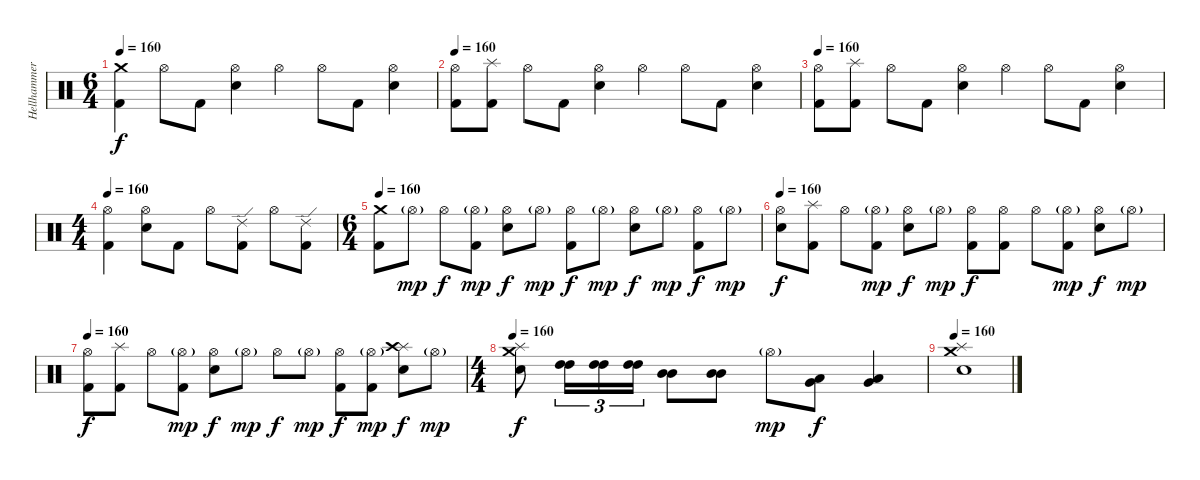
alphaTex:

\track ("Hellhammer" "Hellhammer") {instrument percussion}
\staff {score}
\articulation defaults
\ts (6 4)
\tempo 160
\clef neutral
\ks c
("Kick (hit) 2" "Crash medium (hit)").4{dy f} "Hi-Hat (open)".8 "Kick (hit) 2".8 ("Electric Snare (hit)" "Hi-Hat (open)").4 "Hi-Hat (open)".4 "Hi-Hat (open)".8 "Kick (hit) 2".8 ("Electric Snare (hit)" "Hi-Hat (open)").4 |
\tempo 160
("Kick (hit) 2" "Hi-Hat (open)").8 ("Kick (hit) 2" "Splash (hit)").8 "Hi-Hat (open)".8 "Kick (hit) 2".8 ("Electric Snare (hit)" "Hi-Hat (open)").4 "Hi-Hat (open)".4 "Hi-Hat (open)".8 "Kick (hit) 2".8 ("Electric Snare (hit)" "Hi-Hat (open)").4 |
\tempo 160
("Kick (hit) 2" "Hi-Hat (open)").8 ("Kick (hit) 2" "Splash (hit)").8 "Hi-Hat (open)".8 "Kick (hit) 2".8 ("Electric Snare (hit)" "Hi-Hat (open)").4 "Hi-Hat (open)".4 "Hi-Hat (open)".8 "Kick (hit) 2".8 ("Electric Snare (hit)" "Hi-Hat (open)").4 |
\ts (4 4)
\tempo 160
("Kick (hit) 2" "Hi-Hat (open)").4 ("Electric Snare (hit)" "Hi-Hat (open)").8 "Kick (hit) 2".8 "Hi-Hat (open)".8 ("Kick (hit) 2" "Ride (edge) 2").8 "Hi-Hat (open)".8 ("Kick (hit) 2" "Ride (edge) 2").8 |
\ts (6 4)
\tempo 160
("Kick (hit) 2" "Crash medium (hit)").8 "Hi-Hat (open)"{g}.8{dy mp} "Hi-Hat (open)".8{dy f} ("Kick (hit) 2" "Hi-Hat (open)"{g}).8{dy mp} ("Electric Snare (hit)" "Hi-Hat (open)").8{dy f} "Hi-Hat (open)"{g}.8{dy mp} ("Kick (hit) 2" "Hi-Hat (open)").8{dy f} "Hi-Hat (open)"{g}.8{dy mp} ("Electric Snare (hit)" "Hi-Hat (open)").8{dy f} "Hi-Hat (open)"{g}.8{dy mp} ("Kick (hit) 2" "Hi-Hat (open)").8{dy f} "Hi-Hat (open)"{g}.8{dy mp} |
\tempo 160
("Electric Snare (hit)" "Hi-Hat (open)").8{dy f} ("Kick (hit) 2" "Splash (hit)").8 "Hi-Hat (open)".8 ("Kick (hit) 2" "Hi-Hat (open)"{g}).8{dy mp} ("Electric Snare (hit)" "Hi-Hat (open)").8{dy f} "Hi-Hat (open)"{g}.8{dy mp} ("Kick (hit) 2" "Hi-Hat (open)").8{dy f} ("Kick (hit) 2" "Hi-Hat (open)").8 "Hi-Hat (open)".8 ("Kick (hit) 2" "Hi-Hat (open)"{g}).8{dy mp} ("Electric Snare (hit)" "Hi-Hat (open)").8{dy f} "Hi-Hat (open)"{g}.8{dy mp} |
\tempo 160
("Kick (hit) 2" "Hi-Hat (open)").8{dy f} ("Kick (hit) 2" "Splash (hit)").8 "Hi-Hat (open)".8 ("Kick (hit) 2" "Hi-Hat (open)"{g}).8{dy mp} ("Electric Snare (hit)" "Hi-Hat (open)").8{dy f} "Hi-Hat (open)"{g}.8{dy mp} "Hi-Hat (open)".8{dy f} "Hi-Hat (open)"{g}.8{dy mp} ("Kick (hit) 2" "Hi-Hat (open)").8{dy f} ("Kick (hit) 2" "Hi-Hat (open)"{g}).8{dy mp} ("Electric Snare (hit)" "Splash (hit)" "Crash high (hit)").8{dy f} "Hi-Hat (open)"{g}.8{dy mp} |
\ts (4 4)
\tempo 160
("Electric Snare (hit)" "Splash (hit)" "Crash medium (hit)").8{dy f} ("High Tom (hit)" "High Tom (hit)").16{tu (3 2)} ("High Tom (hit)" "High Tom (hit)").16{tu (3 2)} ("High Tom (hit)" "High Tom (hit)").16{tu (3 2)} ("Mid Tom (hit)" "Mid Tom (hit)").8 ("Mid Tom (hit)" "Mid Tom (hit)").8 "Hi-Hat (open)"{g}.8{dy mp} ("Low Tom (hit)" "Very Low Tom (hit)").8{dy f} ("Very Low Tom (hit)" "Low Floor Tom (hit)").4 |
\tempo 160
("Electric Snare (hit)" "Splash (hit)" "Crash medium (hit)").1
